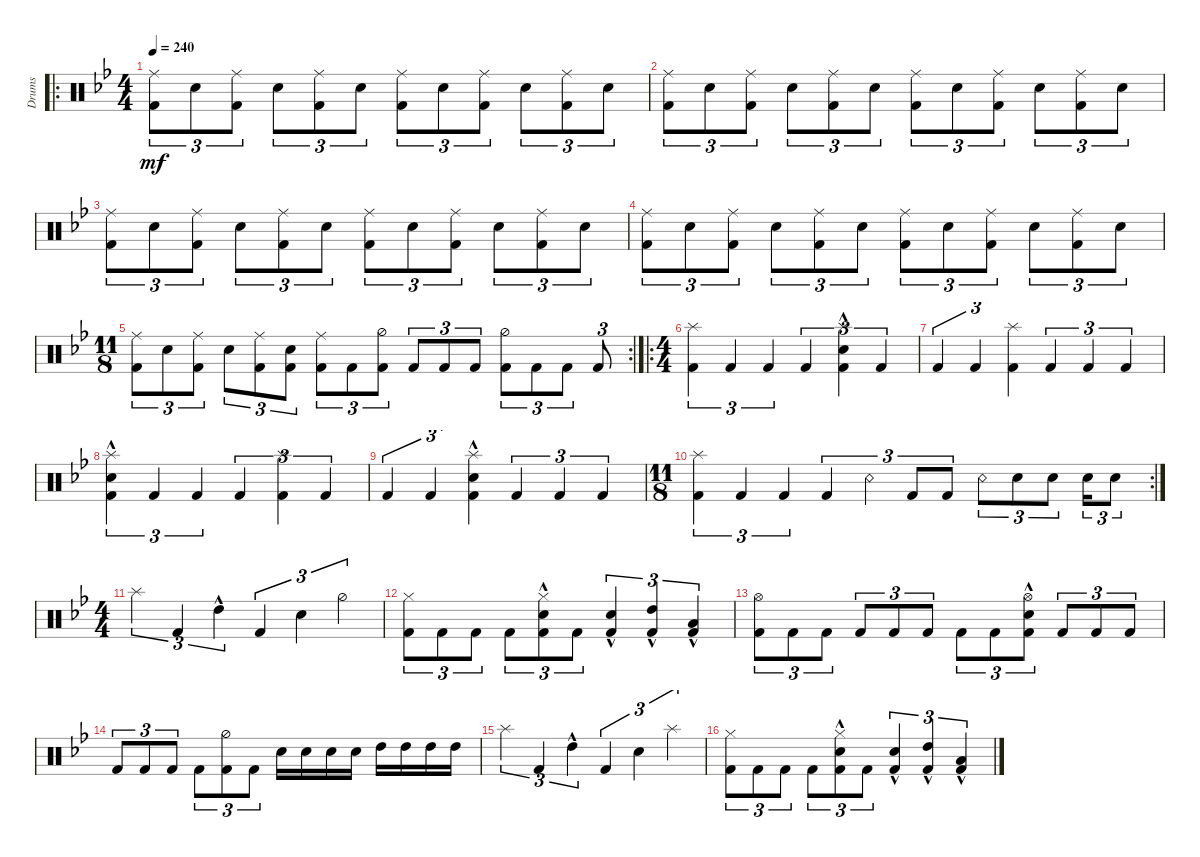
\defaultSystemsLayout 4
\bracketExtendMode groupsimilarinstruments
\otherSystemsTrackNameOrientation horizontal
\track ("Drumkit" "Drums") {instrument percussion}
\staff {score}
\articulation defaults
\ro
\ts (4 4)
\tempo 240
\clef neutral
\ks bb
("Kick (hit) 2"{acc forcenatural} "Ride (middle)"{acc forcenatural}).8{tu (3 2) dy mf} "Snare (hit) 2"{acc forcenatural}.8{tu (3 2)} ("Kick (hit) 2"{acc forcenatural} "Ride (middle)"{acc forcenatural}).8{tu (3 2)} "Snare (hit) 2"{acc forcenatural}.8{tu (3 2)} ("Kick (hit) 2"{acc forcenatural} "Ride (middle)"{acc forcenatural}).8{tu (3 2)} "Snare (hit) 2"{acc forcenatural}.8{tu (3 2)} ("Kick (hit) 2"{acc forcenatural} "Ride (middle)"{acc forcenatural}).8{tu (3 2)} "Snare (hit) 2"{acc forcenatural}.8{tu (3 2)} ("Kick (hit) 2"{acc forcenatural} "Ride (middle)"{acc forcenatural}).8{tu (3 2)} "Snare (hit) 2"{acc forcenatural}.8{tu (3 2)} ("Kick (hit) 2"{acc forcenatural} "Ride (middle)"{acc forcenatural}).8{tu (3 2)} "Snare (hit) 2"{acc forcenatural}.8{tu (3 2)} |
("Kick (hit) 2"{acc forcenatural} "Ride (middle)"{acc forcenatural}).8{tu (3 2)} "Snare (hit) 2"{acc forcenatural}.8{tu (3 2)} ("Kick (hit) 2"{acc forcenatural} "Ride (middle)"{acc forcenatural}).8{tu (3 2)} "Snare (hit) 2"{acc forcenatural}.8{tu (3 2)} ("Kick (hit) 2"{acc forcenatural} "Ride (middle)"{acc forcenatural}).8{tu (3 2)} "Snare (hit) 2"{acc forcenatural}.8{tu (3 2)} ("Kick (hit) 2"{acc forcenatural} "Ride (middle)"{acc forcenatural}).8{tu (3 2)} "Snare (hit) 2"{acc forcenatural}.8{tu (3 2)} ("Kick (hit) 2"{acc forcenatural} "Ride (middle)"{acc forcenatural}).8{tu (3 2)} "Snare (hit) 2"{acc forcenatural}.8{tu (3 2)} ("Kick (hit) 2"{acc forcenatural} "Ride (middle)"{acc forcenatural}).8{tu (3 2)} "Snare (hit) 2"{acc forcenatural}.8{tu (3 2)} |
("Kick (hit) 2"{acc forcenatural} "Ride (middle)"{acc forcenatural}).8{tu (3 2)} "Snare (hit) 2"{acc forcenatural}.8{tu (3 2)} ("Kick (hit) 2"{acc forcenatural} "Ride (middle)"{acc forcenatural}).8{tu (3 2)} "Snare (hit) 2"{acc forcenatural}.8{tu (3 2)} ("Kick (hit) 2"{acc forcenatural} "Ride (middle)"{acc forcenatural}).8{tu (3 2)} "Snare (hit) 2"{acc forcenatural}.8{tu (3 2)} ("Kick (hit) 2"{acc forcenatural} "Ride (middle)"{acc forcenatural}).8{tu (3 2)} "Snare (hit) 2"{acc forcenatural}.8{tu (3 2)} ("Kick (hit) 2"{acc forcenatural} "Ride (middle)"{acc forcenatural}).8{tu (3 2)} "Snare (hit) 2"{acc forcenatural}.8{tu (3 2)} ("Kick (hit) 2"{acc forcenatural} "Ride (middle)"{acc forcenatural}).8{tu (3 2)} "Snare (hit) 2"{acc forcenatural}.8{tu (3 2)} |
("Kick (hit) 2"{acc forcenatural} "Ride (middle)"{acc forcenatural}).8{tu (3 2)} "Snare (hit) 2"{acc forcenatural}.8{tu (3 2)} ("Kick (hit) 2"{acc forcenatural} "Ride (middle)"{acc forcenatural}).8{tu (3 2)} "Snare (hit) 2"{acc forcenatural}.8{tu (3 2)} ("Kick (hit) 2"{acc forcenatural} "Ride (middle)"{acc forcenatural}).8{tu (3 2)} "Snare (hit) 2"{acc forcenatural}.8{tu (3 2)} ("Kick (hit) 2"{acc forcenatural} "Ride (middle)"{acc forcenatural}).8{tu (3 2)} "Snare (hit) 2"{acc forcenatural}.8{tu (3 2)} ("Kick (hit) 2"{acc forcenatural} "Ride (middle)"{acc forcenatural}).8{tu (3 2)} "Snare (hit) 2"{acc forcenatural}.8{tu (3 2)} ("Kick (hit) 2"{acc forcenatural} "Ride (middle)"{acc forcenatural}).8{tu (3 2)} "Snare (hit) 2"{acc forcenatural}.8{tu (3 2)} |
\rc 2
\ts (11 8)
("Kick (hit) 2"{acc forcenatural} "Ride (middle)"{acc forcenatural}).8{tu (3 2)} "Snare (hit) 2"{acc forcenatural}.8{tu (3 2)} ("Kick (hit) 2"{acc forcenatural} "Ride (middle)"{acc forcenatural}).8{tu (3 2)} "Snare (hit) 2"{acc forcenatural}.8{tu (3 2)} ("Kick (hit) 2"{acc forcenatural} "Ride (middle)"{acc forcenatural}).8{tu (3 2)} ("Snare (hit) 2"{acc forcenatural} "Kick (hit) 2"{acc forcenatural}).8{tu (3 2)} ("Kick (hit) 2"{acc forcenatural} "Ride (middle)"{acc forcenatural}).8{tu (3 2)} "Kick (hit) 2"{acc forcenatural}.8{tu (3 2)} ("Kick (hit) 2"{acc forcenatural} "Hi-Hat (half)"{acc forcenatural}).8{tu (3 2)} "Kick (hit) 2"{acc forcenatural}.8{tu (3 2)} "Kick (hit) 2"{acc forcenatural}.8{tu (3 2)} "Kick (hit) 2"{acc forcenatural}.8{tu (3 2)} ("Kick (hit) 2"{acc forcenatural} "Hi-Hat (half)"{acc forcenatural}).8{tu (3 2)} "Kick (hit) 2"{acc forcenatural}.8{tu (3 2)} "Kick (hit) 2"{acc forcenatural}.8{tu (3 2)} "Kick (hit) 2"{acc forcenatural}.8{tu (3 2)} |
\ro
\ts (4 4)
("Kick (hit) 2"{acc forcenatural} "Splash (hit)"{acc forcenatural}).4{tu (3 2)} "Kick (hit) 2"{acc forcenatural}.4{tu (3 2)} "Kick (hit) 2"{acc forcenatural}.4{tu (3 2)} "Kick (hit) 2"{acc forcenatural}.4{tu (3 2)} ("Kick (hit) 2"{acc forcenatural} "Splash (hit)"{acc forcenatural} "Snare (hit) 2"{hac acc forcenatural}).4{tu (3 2)} "Kick (hit) 2"{acc forcenatural}.4{tu (3 2)} |
"Kick (hit) 2"{acc forcenatural}.4{tu (3 2)} "Kick (hit) 2"{acc forcenatural}.4{tu (3 2)} ("Kick (hit) 2"{acc forcenatural} "Splash (hit)"{acc forcenatural}).4{tu (3 2)} "Kick (hit) 2"{acc forcenatural}.4{tu (3 2)} "Kick (hit) 2"{acc forcenatural}.4{tu (3 2)} "Kick (hit) 2"{acc forcenatural}.4{tu (3 2)} |
("Kick (hit) 2"{acc forcenatural} "Splash (hit)"{acc forcenatural} "Snare (hit) 2"{hac acc forcenatural}).4{tu (3 2)} "Kick (hit) 2"{acc forcenatural}.4{tu (3 2)} "Kick (hit) 2"{acc forcenatural}.4{tu (3 2)} "Kick (hit) 2"{acc forcenatural}.4{tu (3 2)} ("Kick (hit) 2"{acc forcenatural} "Splash (hit)"{acc forcenatural}).4{tu (3 2)} "Kick (hit) 2"{acc forcenatural}.4{tu (3 2)} |
"Kick (hit) 2"{acc forcenatural}.4{tu (3 2)} "Kick (hit) 2"{acc forcenatural}.4{tu (3 2)} ("Kick (hit) 2"{acc forcenatural} "Splash (hit)"{acc forcenatural} "Snare (hit) 2"{hac acc forcenatural}).4{tu (3 2)} "Kick (hit) 2"{acc forcenatural}.4{tu (3 2)} "Kick (hit) 2"{acc forcenatural}.4{tu (3 2)} "Kick (hit) 2"{acc forcenatural}.4{tu (3 2)} |
\rc 2
\ts (11 8)
("Kick (hit) 2"{acc forcenatural} "Splash (hit)"{acc forcenatural}).4{tu (3 2)} "Kick (hit) 2"{acc forcenatural}.4{tu (3 2)} "Kick (hit) 2"{acc forcenatural}.4{tu (3 2)} "Kick (hit) 2"{acc forcenatural}.4{tu (3 2)} "Snare (rim shot)"{acc forcenatural}.4{tu (3 2)} "Kick (hit) 2"{acc forcenatural}.8{tu (3 2)} "Kick (hit) 2"{acc forcenatural}.8{tu (3 2)} "Snare (rim shot)"{acc forcenatural}.8{tu (3 2)} "Snare (hit) 2"{acc forcenatural}.8{tu (3 2)} "Snare (hit) 2"{acc forcenatural}.8{tu (3 2)} "Snare (hit) 2"{acc forcenatural}.16{tu (3 2)} "Snare (hit) 2"{acc forcenatural}.8{tu (3 2)} |
\ts (4 4)
"Splash (hit)"{acc forcenatural}.4{tu (3 2)} "Kick (hit) 2"{acc forcenatural}.4{tu (3 2)} "High Tom (hit)"{hac acc forcenatural}.4{tu (3 2)} "Kick (hit) 2"{acc forcenatural}.4{tu (3 2)} "Snare (hit) 2"{acc forcenatural}.4{tu (3 2)} "Hi-Hat (half)"{acc forcenatural}.4{tu (3 2)} |
("Hi-Hat (closed)"{acc forcenatural} "Kick (hit) 2"{acc forcenatural}).8{tu (3 2)} "Kick (hit) 2"{acc forcenatural}.8{tu (3 2)} "Kick (hit) 2"{acc forcenatural}.8{tu (3 2)} "Kick (hit) 2"{acc forcenatural}.8{tu (3 2)} ("Kick (hit) 2"{acc forcenatural} "Hi-Hat (closed)"{acc forcenatural} "Snare (hit) 2"{hac acc forcenatural}).8{tu (3 2)} "Kick (hit) 2"{acc forcenatural}.8{tu (3 2)} ("Snare (hit) 2"{hac acc forcenatural} "Kick (hit) 2"{acc forcenatural}).4{tu (3 2)} ("High Tom (hit)"{hac acc forcenatural} "Kick (hit) 2"{acc forcenatural}).4{tu (3 2)} ("Low Tom (hit)"{hac acc forcenatural} "Kick (hit) 2"{acc forcenatural}).4{tu (3 2)} |
("Kick (hit) 2"{acc forcenatural} "Hi-Hat (open)"{acc forcenatural}).8{tu (3 2)} "Kick (hit) 2"{acc forcenatural}.8{tu (3 2)} "Kick (hit) 2"{acc forcenatural}.8{tu (3 2)} "Kick (hit) 2"{acc forcenatural}.8{tu (3 2)} "Kick (hit) 2"{acc forcenatural}.8{tu (3 2)} "Kick (hit) 2"{acc forcenatural}.8{tu (3 2)} "Kick (hit) 2"{acc forcenatural}.8{tu (3 2)} "Kick (hit) 2"{acc forcenatural}.8{tu (3 2)} ("Kick (hit) 2"{acc forcenatural} "Hi-Hat (open)"{acc forcenatural} "Snare (hit) 2"{hac acc forcenatural}).8{tu (3 2)} "Kick (hit) 2"{acc forcenatural}.8{tu (3 2)} "Kick (hit) 2"{acc forcenatural}.8{tu (3 2)} "Kick (hit) 2"{acc forcenatural}.8{tu (3 2)} |
"Kick (hit) 2"{acc forcenatural}.8{tu (3 2)} "Kick (hit) 2"{acc forcenatural}.8{tu (3 2)} "Kick (hit) 2"{acc forcenatural}.8{tu (3 2)} "Kick (hit) 2"{acc forcenatural}.8{tu (3 2)} ("Kick (hit) 2"{acc forcenatural} "Hi-Hat (half)"{acc forcenatural}).8{tu (3 2)} "Kick (hit) 2"{acc forcenatural}.8{tu (3 2)} "Snare (hit) 2"{acc forcenatural}.16 "Snare (hit) 2"{acc forcenatural}.16 "Snare (hit) 2"{acc forcenatural}.16 "Snare (hit) 2"{acc forcenatural}.16 "High Tom (hit)"{acc forcenatural}.16 "High Tom (hit)"{acc forcenatural}.16 "High Tom (hit)"{acc forcenatural}.16 "High Tom (hit)"{acc forcenatural}.16 |
"Splash (hit)"{acc forcenatural}.4{tu (3 2)} "Kick (hit) 2"{acc forcenatural}.4{tu (3 2)} "High Tom (hit)"{hac acc forcenatural}.4{tu (3 2)} "Kick (hit) 2"{acc forcenatural}.4{tu (3 2)} "Snare (hit) 2"{acc forcenatural}.4{tu (3 2)} "Splash (hit)"{acc forcenatural}.4{tu (3 2)} |
("Hi-Hat (closed)"{acc forcenatural} "Kick (hit) 2"{acc forcenatural}).8{tu (3 2)} "Kick (hit) 2"{acc forcenatural}.8{tu (3 2)} "Kick (hit) 2"{acc forcenatural}.8{tu (3 2)} "Kick (hit) 2"{acc forcenatural}.8{tu (3 2)} ("Kick (hit) 2"{acc forcenatural} "Hi-Hat (closed)"{acc forcenatural} "Snare (hit) 2"{hac acc forcenatural}).8{tu (3 2)} "Kick (hit) 2"{acc forcenatural}.8{tu (3 2)} ("Snare (hit) 2"{hac acc forcenatural} "Kick (hit) 2"{acc forcenatural}).4{tu (3 2)} ("High Tom (hit)"{hac acc forcenatural} "Kick (hit) 2"{acc forcenatural}).4{tu (3 2)} ("Low Tom (hit)"{hac acc forcenatural} "Kick (hit) 2"{acc forcenatural}).4{tu (3 2)}
